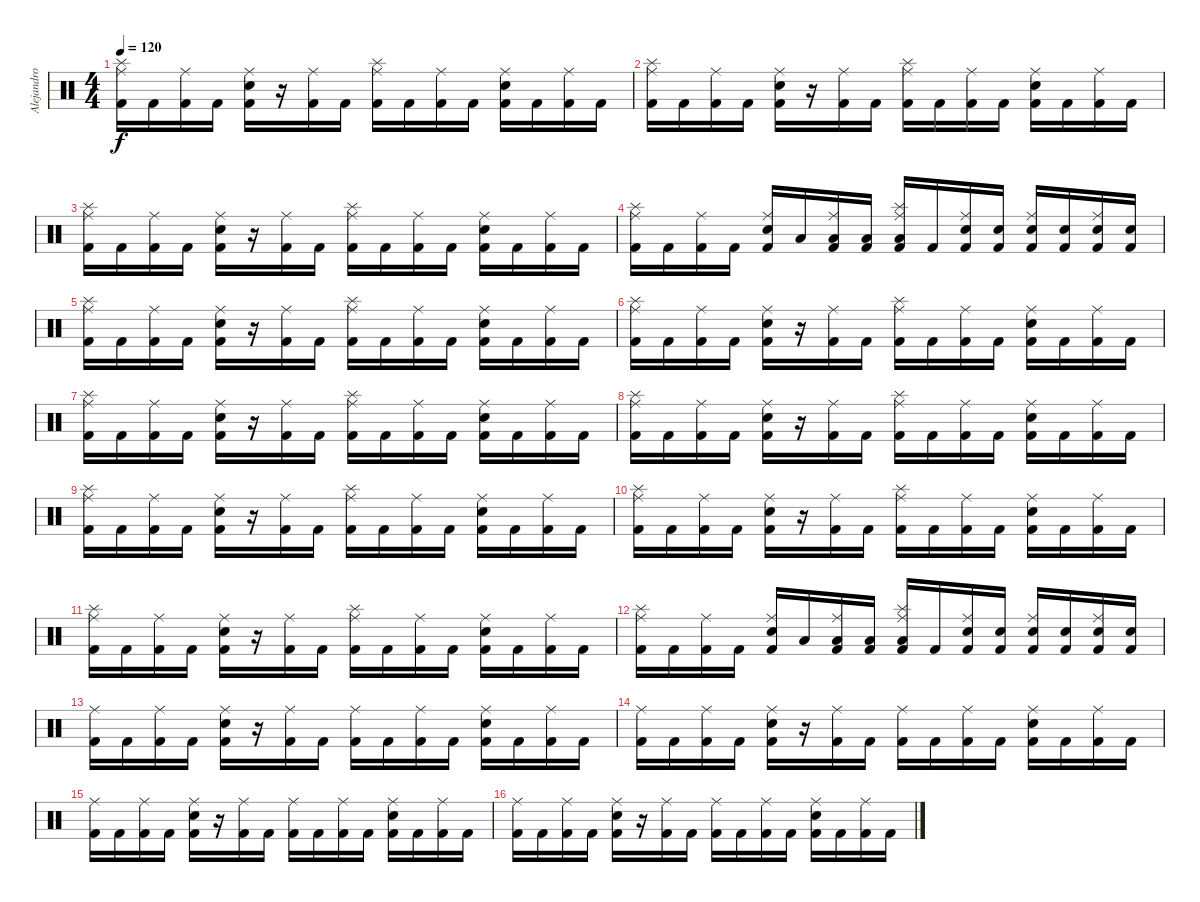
\track ("Alejandro" "Alejandro") {instrument percussion}
\staff {score}
\articulation defaults
\ts (4 4)
\tempo 120
\clef neutral
\ks c
("Kick (hit) 2" "Splash (hit)" "Ride (middle)").16{dy f} "Kick (hit) 2".16 ("Kick (hit) 2" "Ride (middle)").16 "Kick (hit) 2".16 ("Kick (hit) 2" "Snare (hit) 2" "Ride (middle)").16 r.16 ("Kick (hit) 2" "Ride (middle)").16 "Kick (hit) 2".16 ("Kick (hit) 2" "Splash (hit)" "Ride (middle)").16 "Kick (hit) 2".16 ("Kick (hit) 2" "Ride (middle)").16 "Kick (hit) 2".16 ("Kick (hit) 2" "Snare (hit) 2" "Ride (middle)").16 "Kick (hit) 2".16 ("Kick (hit) 2" "Ride (middle)").16 "Kick (hit) 2".16 |
("Kick (hit) 2" "Splash (hit)" "Ride (middle)").16 "Kick (hit) 2".16 ("Kick (hit) 2" "Ride (middle)").16 "Kick (hit) 2".16 ("Kick (hit) 2" "Snare (hit) 2" "Ride (middle)").16 r.16 ("Kick (hit) 2" "Ride (middle)").16 "Kick (hit) 2".16 ("Kick (hit) 2" "Splash (hit)" "Ride (middle)").16 "Kick (hit) 2".16 ("Kick (hit) 2" "Ride (middle)").16 "Kick (hit) 2".16 ("Kick (hit) 2" "Snare (hit) 2" "Ride (middle)").16 "Kick (hit) 2".16 ("Kick (hit) 2" "Ride (middle)").16 "Kick (hit) 2".16 |
("Kick (hit) 2" "Splash (hit)" "Ride (middle)").16 "Kick (hit) 2".16 ("Kick (hit) 2" "Ride (middle)").16 "Kick (hit) 2".16 ("Kick (hit) 2" "Snare (hit) 2" "Ride (middle)").16 r.16 ("Kick (hit) 2" "Ride (middle)").16 "Kick (hit) 2".16 ("Kick (hit) 2" "Splash (hit)" "Ride (middle)").16 "Kick (hit) 2".16 ("Kick (hit) 2" "Ride (middle)").16 "Kick (hit) 2".16 ("Kick (hit) 2" "Snare (hit) 2" "Ride (middle)").16 "Kick (hit) 2".16 ("Kick (hit) 2" "Ride (middle)").16 "Kick (hit) 2".16 |
("Kick (hit) 2" "Splash (hit)" "Ride (middle)").16 "Kick (hit) 2".16 ("Kick (hit) 2" "Ride (middle)").16 "Kick (hit) 2".16 ("Kick (hit) 2" "Snare (hit) 2" "Ride (middle)").16 "Low Floor Tom (hit)".16 ("Kick (hit) 2" "Low Floor Tom (hit)" "Ride (middle)").16 ("Kick (hit) 2" "Low Floor Tom (hit)").16 ("Kick (hit) 2" "Low Floor Tom (hit)" "Splash (hit)" "Ride (middle)").16 "Kick (hit) 2".16 ("Kick (hit) 2" "Snare (hit) 2" "Ride (middle)").16 ("Kick (hit) 2" "Snare (hit) 2").16 ("Kick (hit) 2" "Snare (hit) 2" "Ride (middle)").16 ("Kick (hit) 2" "Snare (hit) 2").16 ("Kick (hit) 2" "Snare (hit) 2" "Ride (middle)").16 ("Kick (hit) 2" "Snare (hit) 2").16 |
("Kick (hit) 2" "Splash (hit)" "Ride (middle)").16 "Kick (hit) 2".16 ("Kick (hit) 2" "Ride (middle)").16 "Kick (hit) 2".16 ("Kick (hit) 2" "Snare (hit) 2" "Ride (middle)").16 r.16 ("Kick (hit) 2" "Ride (middle)").16 "Kick (hit) 2".16 ("Kick (hit) 2" "Splash (hit)" "Ride (middle)").16 "Kick (hit) 2".16 ("Kick (hit) 2" "Ride (middle)").16 "Kick (hit) 2".16 ("Kick (hit) 2" "Snare (hit) 2" "Ride (middle)").16 "Kick (hit) 2".16 ("Kick (hit) 2" "Ride (middle)").16 "Kick (hit) 2".16 |
("Kick (hit) 2" "Splash (hit)" "Ride (middle)").16 "Kick (hit) 2".16 ("Kick (hit) 2" "Ride (middle)").16 "Kick (hit) 2".16 ("Kick (hit) 2" "Snare (hit) 2" "Ride (middle)").16 r.16 ("Kick (hit) 2" "Ride (middle)").16 "Kick (hit) 2".16 ("Kick (hit) 2" "Splash (hit)" "Ride (middle)").16 "Kick (hit) 2".16 ("Kick (hit) 2" "Ride (middle)").16 "Kick (hit) 2".16 ("Kick (hit) 2" "Snare (hit) 2" "Ride (middle)").16 "Kick (hit) 2".16 ("Kick (hit) 2" "Ride (middle)").16 "Kick (hit) 2".16 |
("Kick (hit) 2" "Splash (hit)" "Ride (middle)").16 "Kick (hit) 2".16 ("Kick (hit) 2" "Ride (middle)").16 "Kick (hit) 2".16 ("Kick (hit) 2" "Snare (hit) 2" "Ride (middle)").16 r.16 ("Kick (hit) 2" "Ride (middle)").16 "Kick (hit) 2".16 ("Kick (hit) 2" "Splash (hit)" "Ride (middle)").16 "Kick (hit) 2".16 ("Kick (hit) 2" "Ride (middle)").16 "Kick (hit) 2".16 ("Kick (hit) 2" "Snare (hit) 2" "Ride (middle)").16 "Kick (hit) 2".16 ("Kick (hit) 2" "Ride (middle)").16 "Kick (hit) 2".16 |
("Kick (hit) 2" "Splash (hit)" "Ride (middle)").16 "Kick (hit) 2".16 ("Kick (hit) 2" "Ride (middle)").16 "Kick (hit) 2".16 ("Kick (hit) 2" "Snare (hit) 2" "Ride (middle)").16 r.16 ("Kick (hit) 2" "Ride (middle)").16 "Kick (hit) 2".16 ("Kick (hit) 2" "Splash (hit)" "Ride (middle)").16 "Kick (hit) 2".16 ("Kick (hit) 2" "Ride (middle)").16 "Kick (hit) 2".16 ("Kick (hit) 2" "Snare (hit) 2" "Ride (middle)").16 "Kick (hit) 2".16 ("Kick (hit) 2" "Ride (middle)").16 "Kick (hit) 2".16 |
("Kick (hit) 2" "Splash (hit)" "Ride (middle)").16 "Kick (hit) 2".16 ("Kick (hit) 2" "Ride (middle)").16 "Kick (hit) 2".16 ("Kick (hit) 2" "Snare (hit) 2" "Ride (middle)").16 r.16 ("Kick (hit) 2" "Ride (middle)").16 "Kick (hit) 2".16 ("Kick (hit) 2" "Splash (hit)" "Ride (middle)").16 "Kick (hit) 2".16 ("Kick (hit) 2" "Ride (middle)").16 "Kick (hit) 2".16 ("Kick (hit) 2" "Snare (hit) 2" "Ride (middle)").16 "Kick (hit) 2".16 ("Kick (hit) 2" "Ride (middle)").16 "Kick (hit) 2".16 |
("Kick (hit) 2" "Splash (hit)" "Ride (middle)").16 "Kick (hit) 2".16 ("Kick (hit) 2" "Ride (middle)").16 "Kick (hit) 2".16 ("Kick (hit) 2" "Snare (hit) 2" "Ride (middle)").16 r.16 ("Kick (hit) 2" "Ride (middle)").16 "Kick (hit) 2".16 ("Kick (hit) 2" "Splash (hit)" "Ride (middle)").16 "Kick (hit) 2".16 ("Kick (hit) 2" "Ride (middle)").16 "Kick (hit) 2".16 ("Kick (hit) 2" "Snare (hit) 2" "Ride (middle)").16 "Kick (hit) 2".16 ("Kick (hit) 2" "Ride (middle)").16 "Kick (hit) 2".16 |
("Kick (hit) 2" "Splash (hit)" "Ride (middle)").16 "Kick (hit) 2".16 ("Kick (hit) 2" "Ride (middle)").16 "Kick (hit) 2".16 ("Kick (hit) 2" "Snare (hit) 2" "Ride (middle)").16 r.16 ("Kick (hit) 2" "Ride (middle)").16 "Kick (hit) 2".16 ("Kick (hit) 2" "Splash (hit)" "Ride (middle)").16 "Kick (hit) 2".16 ("Kick (hit) 2" "Ride (middle)").16 "Kick (hit) 2".16 ("Kick (hit) 2" "Snare (hit) 2" "Ride (middle)").16 "Kick (hit) 2".16 ("Kick (hit) 2" "Ride (middle)").16 "Kick (hit) 2".16 |
("Kick (hit) 2" "Splash (hit)" "Ride (middle)").16 "Kick (hit) 2".16 ("Kick (hit) 2" "Ride (middle)").16 "Kick (hit) 2".16 ("Kick (hit) 2" "Snare (hit) 2" "Ride (middle)").16 "Low Floor Tom (hit)".16 ("Kick (hit) 2" "Low Floor Tom (hit)" "Ride (middle)").16 ("Kick (hit) 2" "Low Floor Tom (hit)").16 ("Kick (hit) 2" "Low Floor Tom (hit)" "Splash (hit)" "Ride (middle)").16 "Kick (hit) 2".16 ("Kick (hit) 2" "Snare (hit) 2" "Ride (middle)").16 ("Kick (hit) 2" "Snare (hit) 2").16 ("Kick (hit) 2" "Snare (hit) 2" "Ride (middle)").16 ("Kick (hit) 2" "Snare (hit) 2").16 ("Kick (hit) 2" "Snare (hit) 2" "Ride (middle)").16 ("Kick (hit) 2" "Snare (hit) 2").16 |
("Kick (hit) 2" "Ride (middle)").16 "Kick (hit) 2".16 ("Kick (hit) 2" "Ride (middle)").16 "Kick (hit) 2".16 ("Kick (hit) 2" "Snare (hit) 2" "Ride (middle)").16 r.16 ("Kick (hit) 2" "Ride (middle)").16 "Kick (hit) 2".16 ("Kick (hit) 2" "Ride (middle)").16 "Kick (hit) 2".16 ("Kick (hit) 2" "Ride (middle)").16 "Kick (hit) 2".16 ("Kick (hit) 2" "Snare (hit) 2" "Ride (middle)").16 "Kick (hit) 2".16 ("Kick (hit) 2" "Ride (middle)").16 "Kick (hit) 2".16 |
("Kick (hit) 2" "Ride (middle)").16 "Kick (hit) 2".16 ("Kick (hit) 2" "Ride (middle)").16 "Kick (hit) 2".16 ("Kick (hit) 2" "Snare (hit) 2" "Ride (middle)").16 r.16 ("Kick (hit) 2" "Ride (middle)").16 "Kick (hit) 2".16 ("Kick (hit) 2" "Ride (middle)").16 "Kick (hit) 2".16 ("Kick (hit) 2" "Ride (middle)").16 "Kick (hit) 2".16 ("Kick (hit) 2" "Snare (hit) 2" "Ride (middle)").16 "Kick (hit) 2".16 ("Kick (hit) 2" "Ride (middle)").16 "Kick (hit) 2".16 |
("Kick (hit) 2" "Ride (middle)").16 "Kick (hit) 2".16 ("Kick (hit) 2" "Ride (middle)").16 "Kick (hit) 2".16 ("Kick (hit) 2" "Snare (hit) 2" "Ride (middle)").16 r.16 ("Kick (hit) 2" "Ride (middle)").16 "Kick (hit) 2".16 ("Kick (hit) 2" "Ride (middle)").16 "Kick (hit) 2".16 ("Kick (hit) 2" "Ride (middle)").16 "Kick (hit) 2".16 ("Kick (hit) 2" "Snare (hit) 2" "Ride (middle)").16 "Kick (hit) 2".16 ("Kick (hit) 2" "Ride (middle)").16 "Kick (hit) 2".16 |
("Kick (hit) 2" "Ride (middle)").16 "Kick (hit) 2".16 ("Kick (hit) 2" "Ride (middle)").16 "Kick (hit) 2".16 ("Kick (hit) 2" "Snare (hit) 2" "Ride (middle)").16 r.16 ("Kick (hit) 2" "Ride (middle)").16 "Kick (hit) 2".16 ("Kick (hit) 2" "Ride (middle)").16 "Kick (hit) 2".16 ("Kick (hit) 2" "Ride (middle)").16 "Kick (hit) 2".16 ("Kick (hit) 2" "Snare (hit) 2" "Ride (middle)").16 "Kick (hit) 2".16 ("Kick (hit) 2" "Ride (middle)").16 "Kick (hit) 2".16
